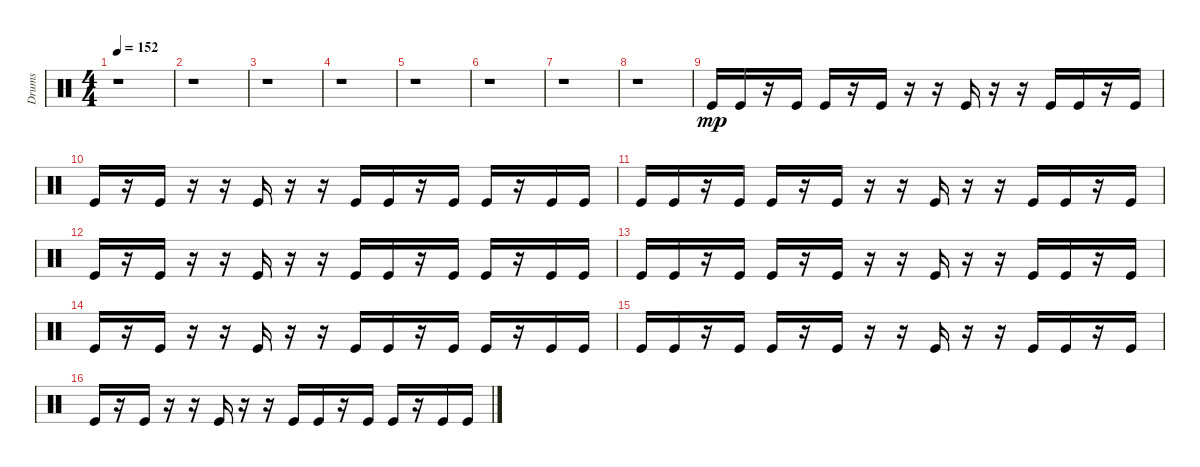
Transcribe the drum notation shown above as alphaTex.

\track ("Drums" "Drums") {instrument percussion}
\staff {score}
\articulation defaults
\ts (4 4)
\tempo 152
\clef neutral
\ks c
r.1{dy mp} |
r.1 |
r.1 |
r.1 |
r.1 |
r.1 |
r.1 |
r.1 |
"Kick (hit)".16 "Kick (hit)".16 r.16 "Kick (hit)".16 "Kick (hit)".16 r.16 "Kick (hit)".16 r.16 r.16 "Kick (hit)".16 r.16 r.16 "Kick (hit)".16 "Kick (hit)".16 r.16 "Kick (hit)".16 |
"Kick (hit)".16 r.16 "Kick (hit)".16 r.16 r.16 "Kick (hit)".16 r.16 r.16 "Kick (hit)".16 "Kick (hit)".16 r.16 "Kick (hit)".16 "Kick (hit)".16 r.16 "Kick (hit)".16 "Kick (hit)".16 |
"Kick (hit)".16 "Kick (hit)".16 r.16 "Kick (hit)".16 "Kick (hit)".16 r.16 "Kick (hit)".16 r.16 r.16 "Kick (hit)".16 r.16 r.16 "Kick (hit)".16 "Kick (hit)".16 r.16 "Kick (hit)".16 |
"Kick (hit)".16 r.16 "Kick (hit)".16 r.16 r.16 "Kick (hit)".16 r.16 r.16 "Kick (hit)".16 "Kick (hit)".16 r.16 "Kick (hit)".16 "Kick (hit)".16 r.16 "Kick (hit)".16 "Kick (hit)".16 |
"Kick (hit)".16 "Kick (hit)".16 r.16 "Kick (hit)".16 "Kick (hit)".16 r.16 "Kick (hit)".16 r.16 r.16 "Kick (hit)".16 r.16 r.16 "Kick (hit)".16 "Kick (hit)".16 r.16 "Kick (hit)".16 |
"Kick (hit)".16 r.16 "Kick (hit)".16 r.16 r.16 "Kick (hit)".16 r.16 r.16 "Kick (hit)".16 "Kick (hit)".16 r.16 "Kick (hit)".16 "Kick (hit)".16 r.16 "Kick (hit)".16 "Kick (hit)".16 |
"Kick (hit)".16 "Kick (hit)".16 r.16 "Kick (hit)".16 "Kick (hit)".16 r.16 "Kick (hit)".16 r.16 r.16 "Kick (hit)".16 r.16 r.16 "Kick (hit)".16 "Kick (hit)".16 r.16 "Kick (hit)".16 |
"Kick (hit)".16 r.16 "Kick (hit)".16 r.16 r.16 "Kick (hit)".16 r.16 r.16 "Kick (hit)".16 "Kick (hit)".16 r.16 "Kick (hit)".16 "Kick (hit)".16 r.16 "Kick (hit)".16 "Kick (hit)".16
